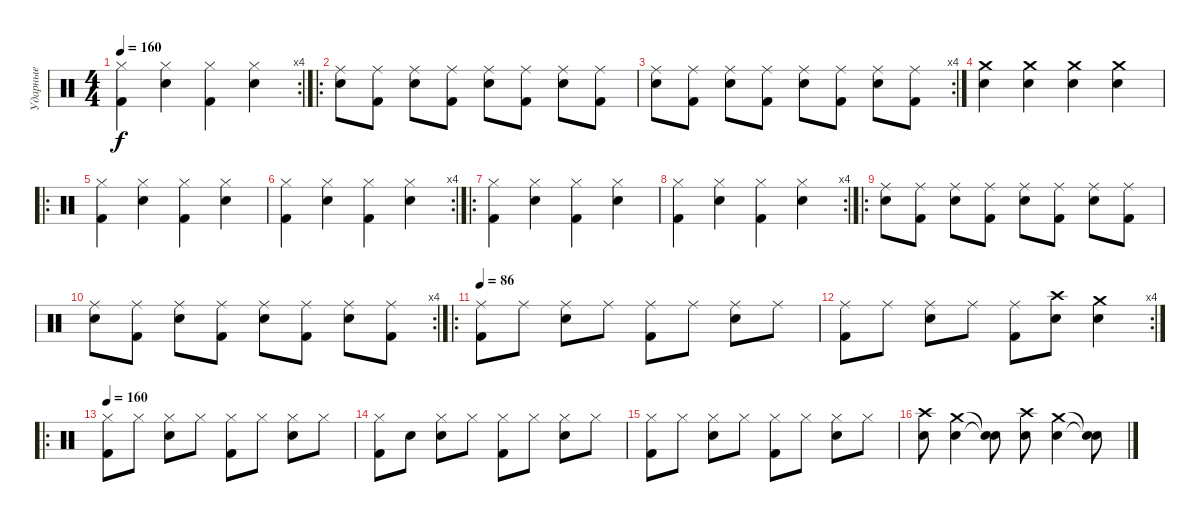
\track ("Ударные" "Ударные") {instrument percussion}
\staff {score}
\articulation defaults
\rc 4
\ts (4 4)
\tempo 160
\clef neutral
\ks c
("Hi-Hat (closed)" "Kick (hit) 2").4{dy f} ("Hi-Hat (closed)" "Electric Snare (hit)").4 ("Hi-Hat (closed)" "Kick (hit) 2").4 ("Hi-Hat (closed)" "Electric Snare (hit)").4 |
\ro
("Ride (middle)" "Electric Snare (hit)").8 ("Ride (middle)" "Kick (hit) 2").8 ("Ride (middle)" "Electric Snare (hit)").8 ("Ride (middle)" "Kick (hit) 2").8 ("Ride (middle)" "Electric Snare (hit)").8 ("Ride (middle)" "Kick (hit) 2").8 ("Ride (middle)" "Electric Snare (hit)").8 ("Ride (middle)" "Kick (hit) 2").8 |
\rc 4
("Ride (middle)" "Electric Snare (hit)").8 ("Ride (middle)" "Kick (hit) 2").8 ("Ride (middle)" "Electric Snare (hit)").8 ("Ride (middle)" "Kick (hit) 2").8 ("Ride (middle)" "Electric Snare (hit)").8 ("Ride (middle)" "Kick (hit) 2").8 ("Ride (middle)" "Electric Snare (hit)").8 ("Ride (middle)" "Kick (hit) 2").8 |
("Crash medium (hit)" "Electric Snare (hit)").4 ("Crash medium (hit)" "Electric Snare (hit)").4 ("Crash medium (hit)" "Electric Snare (hit)").4 ("Crash medium (hit)" "Electric Snare (hit)").4 |
\ro
("Hi-Hat (closed)" "Kick (hit) 2").4 ("Hi-Hat (closed)" "Electric Snare (hit)").4 ("Hi-Hat (closed)" "Kick (hit) 2").4 ("Hi-Hat (closed)" "Electric Snare (hit)").4 |
\rc 4
("Hi-Hat (closed)" "Kick (hit) 2").4 ("Hi-Hat (closed)" "Electric Snare (hit)").4 ("Hi-Hat (closed)" "Kick (hit) 2").4 ("Hi-Hat (closed)" "Electric Snare (hit)").4 |
\ro
("Hi-Hat (closed)" "Kick (hit) 2").4 ("Hi-Hat (closed)" "Electric Snare (hit)").4 ("Hi-Hat (closed)" "Kick (hit) 2").4 ("Hi-Hat (closed)" "Electric Snare (hit)").4 |
\rc 4
("Hi-Hat (closed)" "Kick (hit) 2").4 ("Hi-Hat (closed)" "Electric Snare (hit)").4 ("Hi-Hat (closed)" "Kick (hit) 2").4 ("Hi-Hat (closed)" "Electric Snare (hit)").4 |
\ro
("Ride (middle)" "Electric Snare (hit)").8 ("Ride (middle)" "Kick (hit) 2").8 ("Ride (middle)" "Electric Snare (hit)").8 ("Ride (middle)" "Kick (hit) 2").8 ("Ride (middle)" "Electric Snare (hit)").8 ("Ride (middle)" "Kick (hit) 2").8 ("Ride (middle)" "Electric Snare (hit)").8 ("Ride (middle)" "Kick (hit) 2").8 |
\rc 4
("Ride (middle)" "Electric Snare (hit)").8 ("Ride (middle)" "Kick (hit) 2").8 ("Ride (middle)" "Electric Snare (hit)").8 ("Ride (middle)" "Kick (hit) 2").8 ("Ride (middle)" "Electric Snare (hit)").8 ("Ride (middle)" "Kick (hit) 2").8 ("Ride (middle)" "Electric Snare (hit)").8 ("Ride (middle)" "Kick (hit) 2").8 |
\ro
\tempo 86
("Ride (middle)" "Kick (hit) 2").8 "Ride (middle)".8 ("Ride (middle)" "Electric Snare (hit)").8 "Ride (middle)".8 ("Ride (middle)" "Kick (hit) 2").8 "Ride (middle)".8 ("Ride (middle)" "Electric Snare (hit)").8 "Ride (middle)".8 |
\rc 4
("Ride (middle)" "Kick (hit) 2").8 "Ride (middle)".8 ("Ride (middle)" "Electric Snare (hit)").8 "Ride (middle)".8 ("Ride (middle)" "Kick (hit) 2").8 ("Crash high (hit)" "Electric Snare (hit)").8 ("Crash medium (hit)" "Electric Snare (hit)").4 |
\ro
\tempo 160
("Hi-Hat (closed)" "Kick (hit) 2").8 "Hi-Hat (closed)".8 ("Hi-Hat (closed)" "Electric Snare (hit)").8 "Hi-Hat (closed)".8 ("Hi-Hat (closed)" "Kick (hit) 2").8 "Hi-Hat (closed)".8 ("Hi-Hat (closed)" "Electric Snare (hit)").8 "Hi-Hat (closed)".8 |
("Hi-Hat (closed)" "Kick (hit) 2").8 "Snare (hit)".8 ("Hi-Hat (closed)" "Electric Snare (hit)").8 "Hi-Hat (closed)".8 ("Hi-Hat (closed)" "Kick (hit) 2").8 "Hi-Hat (closed)".8 ("Hi-Hat (closed)" "Electric Snare (hit)").8 "Hi-Hat (closed)".8 |
("Hi-Hat (closed)" "Kick (hit) 2").8 "Hi-Hat (closed)".8 ("Hi-Hat (closed)" "Electric Snare (hit)").8 "Hi-Hat (closed)".8 ("Hi-Hat (closed)" "Kick (hit) 2").8 "Hi-Hat (closed)".8 ("Hi-Hat (closed)" "Electric Snare (hit)").8 "Hi-Hat (closed)".8 |
("Crash high (hit)" "Electric Snare (hit)").8 ("Crash medium (hit)" "Electric Snare (hit)").4 ("Snare (hit)"{t} "Snare (hit)"{t}).8 ("Crash high (hit)" "Electric Snare (hit)").8 ("Crash medium (hit)" "Electric Snare (hit)").4 ("Snare (hit)"{t} "Snare (hit)"{t}).8
